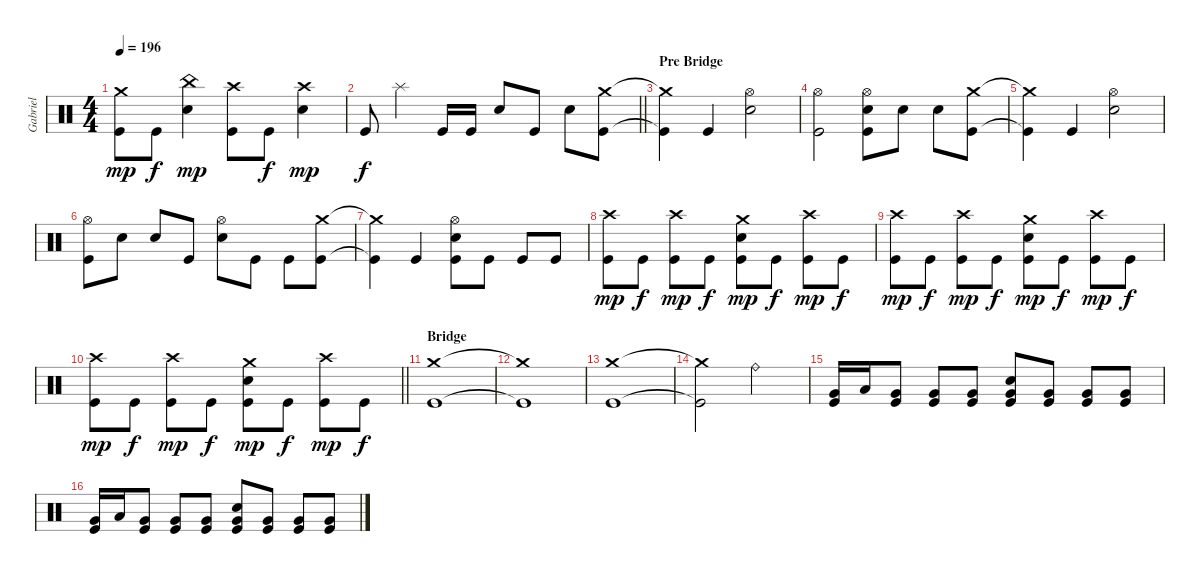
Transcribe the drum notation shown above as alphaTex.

\track ("Gabriel" "Gabriel") {instrument percussion}
\staff {score}
\articulation defaults
\ts (4 4)
\tempo 196
\clef neutral
\ks aminor
("Crash medium (hit)" "Kick (hit)").8{dy mp} "Kick (hit)".8{dy f} ("China (hit)" "Snare (hit) 2").4{dy mp} ("Crash high (hit)" "Kick (hit)").8 "Kick (hit)".8{dy f} ("Crash high (hit)" "Snare (hit) 2").4{dy mp} |
\barLineRight lightlight "Kick (hit)".8{dy f} "Splash (hit)".4 "Kick (hit)".16 "Kick (hit)".16 "Snare (hit) 2".8 "Kick (hit)".8 "Snare (hit) 2".8
("Crash medium (hit)" "Kick (hit)").8 |
\section ("" "Pre Bridge")
("Crash medium (hit)"{t} "Kick (hit)"{t}).4 "Kick (hit)".4 ("Hi-Hat (open)" "Snare (hit) 2").2 |
("Hi-Hat (open)" "Kick (hit)").2 ("Hi-Hat (open)" "Snare (hit) 2" "Kick (hit)").8 "Snare (hit) 2".8 "Snare (hit) 2".8 ("Crash medium (hit)" "Kick (hit)").8 |
("Crash medium (hit)"{t} "Kick (hit)"{t}).4 "Kick (hit)".4 ("Hi-Hat (open)" "Snare (hit) 2").2 |
("Hi-Hat (open)" "Kick (hit)").8 "Snare (hit) 2".8 "Snare (hit) 2".8 "Kick (hit)".8 ("Hi-Hat (open)" "Snare (hit) 2").8 "Kick (hit)".8 "Kick (hit)".8 ("Crash medium (hit)" "Kick (hit)").8 |
("Crash medium (hit)"{t} "Kick (hit)"{t}).4 "Kick (hit)".4 ("Hi-Hat (open)" "Snare (hit) 2" "Kick (hit)").8 "Kick (hit)".8 "Kick (hit)".8 "Kick (hit)".8 |
("Crash high (hit)" "Kick (hit)").8{dy mp} "Kick (hit)".8{dy f} ("Crash high (hit)" "Kick (hit)").8{dy mp} "Kick (hit)".8{dy f} ("Crash medium (hit)" "Snare (hit) 2" "Kick (hit)").8{dy mp} "Kick (hit)".8{dy f} ("Crash high (hit)" "Kick (hit)").8{dy mp} "Kick (hit)".8{dy f} |
("Crash high (hit)" "Kick (hit)").8{dy mp} "Kick (hit)".8{dy f} ("Crash high (hit)" "Kick (hit)").8{dy mp} "Kick (hit)".8{dy f} ("Crash medium (hit)" "Snare (hit) 2" "Kick (hit)").8{dy mp} "Kick (hit)".8{dy f} ("Crash high (hit)" "Kick (hit)").8{dy mp} "Kick (hit)".8{dy f} |
\barLineRight lightlight
("Crash high (hit)" "Kick (hit)").8{dy mp} "Kick (hit)".8{dy f} ("Crash high (hit)" "Kick (hit)").8{dy mp} "Kick (hit)".8{dy f} ("Crash medium (hit)" "Snare (hit) 2" "Kick (hit)").8{dy mp} "Kick (hit)".8{dy f} ("Crash high (hit)" "Kick (hit)").8{dy mp} "Kick (hit)".8{dy f} |
\section ("" "Bridge")
("Crash medium (hit)" "Kick (hit)").1 |
("Crash medium (hit)"{t} "Kick (hit)"{t}).1 |
("Crash medium (hit)" "Kick (hit)").1 |
("Crash medium (hit)"{t} "Kick (hit)"{t}).2 "Ride (bell)".2 |
("Very Low Tom (hit)" "Kick (hit)").16 "Low Tom (hit)".16 ("Very Low Tom (hit)" "Kick (hit)").8 ("Very Low Tom (hit)" "Kick (hit)").8 ("Very Low Tom (hit)" "Kick (hit)").8 ("Snare (hit) 2" "Very Low Tom (hit)" "Kick (hit)").8 ("Very Low Tom (hit)" "Kick (hit)").8 ("Very Low Tom (hit)" "Kick (hit)").8 ("Very Low Tom (hit)" "Kick (hit)").8 |
("Very Low Tom (hit)" "Kick (hit)").16 "Low Tom (hit)".16 ("Very Low Tom (hit)" "Kick (hit)").8 ("Very Low Tom (hit)" "Kick (hit)").8 ("Very Low Tom (hit)" "Kick (hit)").8 ("Snare (hit) 2" "Very Low Tom (hit)" "Kick (hit)").8 ("Very Low Tom (hit)" "Kick (hit)").8 ("Very Low Tom (hit)" "Kick (hit)").8 ("Very Low Tom (hit)" "Kick (hit)").8
